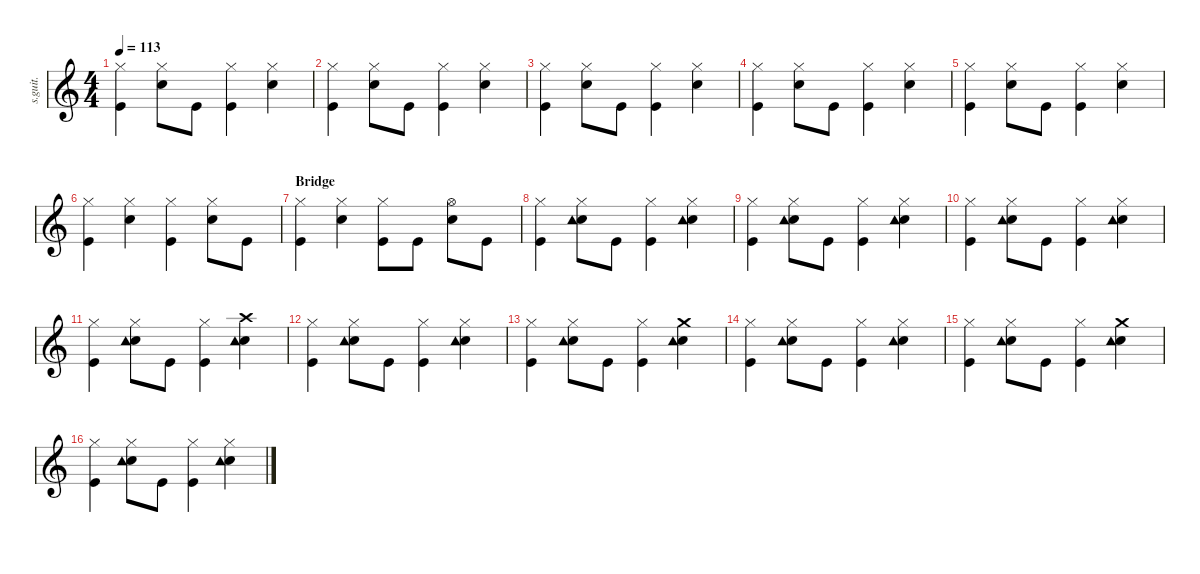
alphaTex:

\defaultSystemsLayout 4
\hideDynamics
\bracketExtendMode nobrackets
\track ("" "s.guit.") {instrument percussion}
\staff {score}
\articulation defaults
\ts (4 4)
\tempo 113
\clef g2
\ks c
("Hi-Hat (closed)" "Kick (hit)").4{lyrics (0 "") lyrics (1 "") lyrics (2 "") lyrics (3 "") lyrics (4 "") dy f} ("Hi-Hat (closed)" "Snare (hit) 2").8{lyrics (0 "") lyrics (1 "") lyrics (2 "") lyrics (3 "") lyrics (4 "")} "Kick (hit)".8{lyrics (0 "") lyrics (1 "") lyrics (2 "") lyrics (3 "") lyrics (4 "")} ("Hi-Hat (closed)" "Kick (hit)").4{lyrics (0 "") lyrics (1 "") lyrics (2 "") lyrics (3 "") lyrics (4 "")} ("Hi-Hat (closed)" "Snare (hit) 2").4{lyrics (0 "") lyrics (1 "") lyrics (2 "") lyrics (3 "") lyrics (4 "")} |
("Hi-Hat (closed)" "Kick (hit)").4{lyrics (0 "") lyrics (1 "") lyrics (2 "") lyrics (3 "") lyrics (4 "")} ("Hi-Hat (closed)" "Snare (hit) 2").8{lyrics (0 "") lyrics (1 "") lyrics (2 "") lyrics (3 "") lyrics (4 "")} "Kick (hit)".8{lyrics (0 "") lyrics (1 "") lyrics (2 "") lyrics (3 "") lyrics (4 "")} ("Hi-Hat (closed)" "Kick (hit)").4{lyrics (0 "") lyrics (1 "") lyrics (2 "") lyrics (3 "") lyrics (4 "")} ("Hi-Hat (closed)" "Snare (hit) 2").4{lyrics (0 "") lyrics (1 "") lyrics (2 "") lyrics (3 "") lyrics (4 "")} |
("Hi-Hat (closed)" "Kick (hit)").4{lyrics (0 "") lyrics (1 "") lyrics (2 "") lyrics (3 "") lyrics (4 "")} ("Hi-Hat (closed)" "Snare (hit) 2").8{lyrics (0 "") lyrics (1 "") lyrics (2 "") lyrics (3 "") lyrics (4 "")} "Kick (hit)".8{lyrics (0 "") lyrics (1 "") lyrics (2 "") lyrics (3 "") lyrics (4 "")} ("Hi-Hat (closed)" "Kick (hit)").4{lyrics (0 "") lyrics (1 "") lyrics (2 "") lyrics (3 "") lyrics (4 "")} ("Hi-Hat (closed)" "Snare (hit) 2").4{lyrics (0 "") lyrics (1 "") lyrics (2 "") lyrics (3 "") lyrics (4 "")} |
("Hi-Hat (closed)" "Kick (hit)").4{lyrics (0 "") lyrics (1 "") lyrics (2 "") lyrics (3 "") lyrics (4 "")} ("Hi-Hat (closed)" "Snare (hit) 2").8{lyrics (0 "") lyrics (1 "") lyrics (2 "") lyrics (3 "") lyrics (4 "")} "Kick (hit)".8{lyrics (0 "") lyrics (1 "") lyrics (2 "") lyrics (3 "") lyrics (4 "")} ("Hi-Hat (closed)" "Kick (hit)").4{lyrics (0 "") lyrics (1 "") lyrics (2 "") lyrics (3 "") lyrics (4 "")} ("Hi-Hat (closed)" "Snare (hit) 2").4{lyrics (0 "") lyrics (1 "") lyrics (2 "") lyrics (3 "") lyrics (4 "")} |
("Hi-Hat (closed)" "Kick (hit)").4{lyrics (0 "") lyrics (1 "") lyrics (2 "") lyrics (3 "") lyrics (4 "")} ("Hi-Hat (closed)" "Snare (hit) 2").8{lyrics (0 "") lyrics (1 "") lyrics (2 "") lyrics (3 "") lyrics (4 "")} "Kick (hit)".8{lyrics (0 "") lyrics (1 "") lyrics (2 "") lyrics (3 "") lyrics (4 "")} ("Hi-Hat (closed)" "Kick (hit)").4{lyrics (0 "") lyrics (1 "") lyrics (2 "") lyrics (3 "") lyrics (4 "")} ("Hi-Hat (closed)" "Snare (hit) 2").4{lyrics (0 "") lyrics (1 "") lyrics (2 "") lyrics (3 "") lyrics (4 "")} |
("Hi-Hat (closed)" "Kick (hit)").4{lyrics (0 "") lyrics (1 "") lyrics (2 "") lyrics (3 "") lyrics (4 "")} ("Hi-Hat (closed)" "Snare (hit) 2").4{lyrics (0 "") lyrics (1 "") lyrics (2 "") lyrics (3 "") lyrics (4 "")} ("Hi-Hat (closed)" "Kick (hit)").4{lyrics (0 "") lyrics (1 "") lyrics (2 "") lyrics (3 "") lyrics (4 "")} ("Hi-Hat (closed)" "Snare (hit) 2").8{lyrics (0 "") lyrics (1 "") lyrics (2 "") lyrics (3 "") lyrics (4 "")} "Kick (hit)".8{lyrics (0 "") lyrics (1 "") lyrics (2 "") lyrics (3 "") lyrics (4 "")} |
\section ("" "Bridge")
("Hi-Hat (closed)" "Kick (hit)").4{lyrics (0 "") lyrics (1 "") lyrics (2 "") lyrics (3 "") lyrics (4 "")} ("Hi-Hat (closed)" "Snare (hit) 2").4{lyrics (0 "") lyrics (1 "") lyrics (2 "") lyrics (3 "") lyrics (4 "")} ("Hi-Hat (closed)" "Kick (hit)").8{lyrics (0 "") lyrics (1 "") lyrics (2 "") lyrics (3 "") lyrics (4 "")} "Kick (hit)".8{lyrics (0 "") lyrics (1 "") lyrics (2 "") lyrics (3 "") lyrics (4 "")} ("Hi-Hat (open)" "Snare (hit) 2").8{lyrics (0 "") lyrics (1 "") lyrics (2 "") lyrics (3 "") lyrics (4 "")} "Kick (hit)".8{lyrics (0 "") lyrics (1 "") lyrics (2 "") lyrics (3 "") lyrics (4 "")} |
("Hi-Hat (closed)" "Kick (hit)").4{lyrics (0 "") lyrics (1 "") lyrics (2 "") lyrics (3 "") lyrics (4 "")} ("Hi-Hat (closed)" "Snare (hit) 2" "Tambourine (hit)").8{lyrics (0 "") lyrics (1 "") lyrics (2 "") lyrics (3 "") lyrics (4 "")} "Kick (hit)".8{lyrics (0 "") lyrics (1 "") lyrics (2 "") lyrics (3 "") lyrics (4 "")} ("Hi-Hat (closed)" "Kick (hit)").4{lyrics (0 "") lyrics (1 "") lyrics (2 "") lyrics (3 "") lyrics (4 "")} ("Hi-Hat (closed)" "Snare (hit) 2" "Tambourine (hit)").4{lyrics (0 "") lyrics (1 "") lyrics (2 "") lyrics (3 "") lyrics (4 "")} |
("Hi-Hat (closed)" "Kick (hit)").4{lyrics (0 "") lyrics (1 "") lyrics (2 "") lyrics (3 "") lyrics (4 "")} ("Hi-Hat (closed)" "Snare (hit) 2" "Tambourine (hit)").8{lyrics (0 "") lyrics (1 "") lyrics (2 "") lyrics (3 "") lyrics (4 "")} "Kick (hit)".8{lyrics (0 "") lyrics (1 "") lyrics (2 "") lyrics (3 "") lyrics (4 "")} ("Hi-Hat (closed)" "Kick (hit)").4{lyrics (0 "") lyrics (1 "") lyrics (2 "") lyrics (3 "") lyrics (4 "")} ("Hi-Hat (closed)" "Snare (hit) 2" "Tambourine (hit)").4{lyrics (0 "") lyrics (1 "") lyrics (2 "") lyrics (3 "") lyrics (4 "")} |
("Hi-Hat (closed)" "Kick (hit)").4{lyrics (0 "") lyrics (1 "") lyrics (2 "") lyrics (3 "") lyrics (4 "")} ("Hi-Hat (closed)" "Snare (hit) 2" "Tambourine (hit)").8{lyrics (0 "") lyrics (1 "") lyrics (2 "") lyrics (3 "") lyrics (4 "")} "Kick (hit)".8{lyrics (0 "") lyrics (1 "") lyrics (2 "") lyrics (3 "") lyrics (4 "")} ("Hi-Hat (closed)" "Kick (hit)").4{lyrics (0 "") lyrics (1 "") lyrics (2 "") lyrics (3 "") lyrics (4 "")} ("Hi-Hat (closed)" "Snare (hit) 2" "Tambourine (hit)").4{lyrics (0 "") lyrics (1 "") lyrics (2 "") lyrics (3 "") lyrics (4 "")} |
("Hi-Hat (closed)" "Kick (hit)").4{lyrics (0 "") lyrics (1 "") lyrics (2 "") lyrics (3 "") lyrics (4 "")} ("Hi-Hat (closed)" "Snare (hit) 2" "Tambourine (hit)").8{lyrics (0 "") lyrics (1 "") lyrics (2 "") lyrics (3 "") lyrics (4 "")} "Kick (hit)".8{lyrics (0 "") lyrics (1 "") lyrics (2 "") lyrics (3 "") lyrics (4 "")} ("Hi-Hat (closed)" "Kick (hit)").4{lyrics (0 "") lyrics (1 "") lyrics (2 "") lyrics (3 "") lyrics (4 "")} ("Crash high (hit)" "Snare (hit) 2" "Tambourine (hit)").4{lyrics (0 "") lyrics (1 "") lyrics (2 "") lyrics (3 "") lyrics (4 "")} |
("Hi-Hat (closed)" "Kick (hit)").4{lyrics (0 "") lyrics (1 "") lyrics (2 "") lyrics (3 "") lyrics (4 "")} ("Hi-Hat (closed)" "Snare (hit) 2" "Tambourine (hit)").8{lyrics (0 "") lyrics (1 "") lyrics (2 "") lyrics (3 "") lyrics (4 "")} "Kick (hit)".8{lyrics (0 "") lyrics (1 "") lyrics (2 "") lyrics (3 "") lyrics (4 "")} ("Hi-Hat (closed)" "Kick (hit)").4{lyrics (0 "") lyrics (1 "") lyrics (2 "") lyrics (3 "") lyrics (4 "")} ("Hi-Hat (closed)" "Snare (hit) 2" "Tambourine (hit)").4{lyrics (0 "") lyrics (1 "") lyrics (2 "") lyrics (3 "") lyrics (4 "")} |
("Hi-Hat (closed)" "Kick (hit)").4{lyrics (0 "") lyrics (1 "") lyrics (2 "") lyrics (3 "") lyrics (4 "")} ("Hi-Hat (closed)" "Snare (hit) 2" "Tambourine (hit)").8{lyrics (0 "") lyrics (1 "") lyrics (2 "") lyrics (3 "") lyrics (4 "")} "Kick (hit)".8{lyrics (0 "") lyrics (1 "") lyrics (2 "") lyrics (3 "") lyrics (4 "")} ("Hi-Hat (closed)" "Kick (hit)").4{lyrics (0 "") lyrics (1 "") lyrics (2 "") lyrics (3 "") lyrics (4 "")} ("Crash medium (hit)" "Snare (hit) 2" "Tambourine (hit)").4{lyrics (0 "") lyrics (1 "") lyrics (2 "") lyrics (3 "") lyrics (4 "")} |
("Hi-Hat (closed)" "Kick (hit)").4{lyrics (0 "") lyrics (1 "") lyrics (2 "") lyrics (3 "") lyrics (4 "")} ("Hi-Hat (closed)" "Snare (hit) 2" "Tambourine (hit)").8{lyrics (0 "") lyrics (1 "") lyrics (2 "") lyrics (3 "") lyrics (4 "")} "Kick (hit)".8{lyrics (0 "") lyrics (1 "") lyrics (2 "") lyrics (3 "") lyrics (4 "")} ("Hi-Hat (closed)" "Kick (hit)").4{lyrics (0 "") lyrics (1 "") lyrics (2 "") lyrics (3 "") lyrics (4 "")} ("Hi-Hat (closed)" "Snare (hit) 2" "Tambourine (hit)").4{lyrics (0 "") lyrics (1 "") lyrics (2 "") lyrics (3 "") lyrics (4 "")} |
("Hi-Hat (closed)" "Kick (hit)").4{lyrics (0 "") lyrics (1 "") lyrics (2 "") lyrics (3 "") lyrics (4 "")} ("Hi-Hat (closed)" "Snare (hit) 2" "Tambourine (hit)").8{lyrics (0 "") lyrics (1 "") lyrics (2 "") lyrics (3 "") lyrics (4 "")} "Kick (hit)".8{lyrics (0 "") lyrics (1 "") lyrics (2 "") lyrics (3 "") lyrics (4 "")} ("Hi-Hat (closed)" "Kick (hit)").4{lyrics (0 "") lyrics (1 "") lyrics (2 "") lyrics (3 "") lyrics (4 "")} ("Crash medium (hit)" "Snare (hit) 2" "Tambourine (hit)").4{lyrics (0 "") lyrics (1 "") lyrics (2 "") lyrics (3 "") lyrics (4 "")} |
("Hi-Hat (closed)" "Kick (hit)").4{lyrics (0 "") lyrics (1 "") lyrics (2 "") lyrics (3 "") lyrics (4 "")} ("Hi-Hat (closed)" "Snare (hit) 2" "Tambourine (hit)").8{lyrics (0 "") lyrics (1 "") lyrics (2 "") lyrics (3 "") lyrics (4 "")} "Kick (hit)".8{lyrics (0 "") lyrics (1 "") lyrics (2 "") lyrics (3 "") lyrics (4 "")} ("Hi-Hat (closed)" "Kick (hit)").4{lyrics (0 "") lyrics (1 "") lyrics (2 "") lyrics (3 "") lyrics (4 "")} ("Hi-Hat (closed)" "Snare (hit) 2" "Tambourine (hit)").4{lyrics (0 "") lyrics (1 "") lyrics (2 "") lyrics (3 "") lyrics (4 "")}
